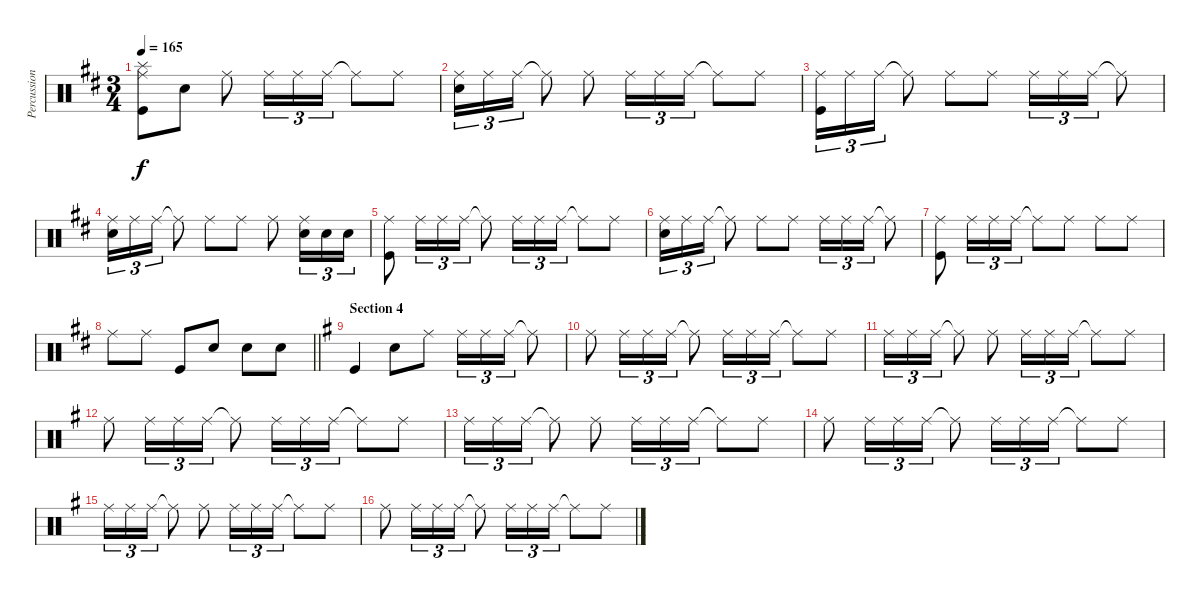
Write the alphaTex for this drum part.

\track ("Percussion" "Percussion") {instrument percussion}
\staff {score}
\articulation defaults
\ts (3 4)
\tempo 165
\clef neutral
\ks d
("Splash (hit)" "Ride (middle)" "Kick (hit)").8{dy f} "Snare (hit)".8 "Ride (middle)".8 "Ride (middle)".16{tu (3 2)} "Ride (middle)".16{tu (3 2)} "Ride (middle)".16{tu (3 2)} "Ride (middle)"{t}.8 "Ride (middle)".8 |
("Ride (middle)" "Snare (hit) 2").16{tu (3 2)} "Ride (middle)".16{tu (3 2)} "Ride (middle)".16{tu (3 2)} "Ride (middle)"{t}.8 "Ride (middle)".8 "Ride (middle)".16{tu (3 2)} "Ride (middle)".16{tu (3 2)} "Ride (middle)".16{tu (3 2)} "Ride (middle)"{t}.8 "Ride (middle)".8 |
("Ride (middle)" "Kick (hit)").16{tu (3 2)} "Ride (middle)".16{tu (3 2)} "Ride (middle)".16{tu (3 2)} "Ride (middle)"{t}.8 "Ride (middle)".8 "Ride (middle)".8 "Ride (middle)".16{tu (3 2)} "Ride (middle)".16{tu (3 2)} "Ride (middle)".16{tu (3 2)} "Ride (middle)"{t}.8 |
("Ride (middle)" "Snare (hit) 2").16{tu (3 2)} "Ride (middle)".16{tu (3 2)} "Ride (middle)".16{tu (3 2)} "Ride (middle)"{t}.8 "Ride (middle)".8 "Ride (middle)".8 "Ride (middle)".8 ("Ride (middle)" "Snare (hit) 2").16{tu (3 2)} "Snare (hit) 2".16{tu (3 2)} "Snare (hit) 2".16{tu (3 2)} |
("Ride (middle)" "Kick (hit)").8 "Ride (middle)".16{tu (3 2)} "Ride (middle)".16{tu (3 2)} "Ride (middle)".16{tu (3 2)} "Ride (middle)"{t}.8 "Ride (middle)".16{tu (3 2)} "Ride (middle)".16{tu (3 2)} "Ride (middle)".16{tu (3 2)} "Ride (middle)"{t}.8 "Ride (middle)".8 |
("Ride (middle)" "Snare (hit) 2").16{tu (3 2)} "Ride (middle)".16{tu (3 2)} "Ride (middle)".16{tu (3 2)} "Ride (middle)"{t}.8 "Ride (middle)".8 "Ride (middle)".8 "Ride (middle)".16{tu (3 2)} "Ride (middle)".16{tu (3 2)} "Ride (middle)".16{tu (3 2)} "Ride (middle)"{t}.8 |
("Ride (middle)" "Kick (hit)").8 "Ride (middle)".16{tu (3 2)} "Ride (middle)".16{tu (3 2)} "Ride (middle)".16{tu (3 2)} "Ride (middle)"{t}.8 "Ride (middle)".8 "Ride (middle)".8 "Ride (middle)".8 |
\barLineRight lightlight "Ride (middle)".8 "Ride (middle)".8 "Kick (hit)".8 "Snare (hit) 2".8 "Snare (hit) 2".8 "Snare (hit) 2".8
|
\section ("" "Section 4")
\ks g "Kick (hit)".4 "Snare (hit) 2".8 "Ride (middle)".8 "Ride (middle)".16{tu (3 2)} "Ride (middle)".16{tu (3 2)} "Ride (middle)".16{tu (3 2)} "Ride (middle)"{t}.8
|
"Ride (middle)".8 "Ride (middle)".16{tu (3 2)} "Ride (middle)".16{tu (3 2)} "Ride (middle)".16{tu (3 2)} "Ride (middle)"{t}.8 "Ride (middle)".16{tu (3 2)} "Ride (middle)".16{tu (3 2)} "Ride (middle)".16{tu (3 2)} "Ride (middle)"{t}.8 "Ride (middle)".8 |
"Ride (middle)".16{tu (3 2)} "Ride (middle)".16{tu (3 2)} "Ride (middle)".16{tu (3 2)} "Ride (middle)"{t}.8 "Ride (middle)".8 "Ride (middle)".16{tu (3 2)} "Ride (middle)".16{tu (3 2)} "Ride (middle)".16{tu (3 2)} "Ride (middle)"{t}.8 "Ride (middle)".8 |
"Ride (middle)".8 "Ride (middle)".16{tu (3 2)} "Ride (middle)".16{tu (3 2)} "Ride (middle)".16{tu (3 2)} "Ride (middle)"{t}.8 "Ride (middle)".16{tu (3 2)} "Ride (middle)".16{tu (3 2)} "Ride (middle)".16{tu (3 2)} "Ride (middle)"{t}.8 "Ride (middle)".8 |
"Ride (middle)".16{tu (3 2)} "Ride (middle)".16{tu (3 2)} "Ride (middle)".16{tu (3 2)} "Ride (middle)"{t}.8 "Ride (middle)".8 "Ride (middle)".16{tu (3 2)} "Ride (middle)".16{tu (3 2)} "Ride (middle)".16{tu (3 2)} "Ride (middle)"{t}.8 "Ride (middle)".8 |
"Ride (middle)".8 "Ride (middle)".16{tu (3 2)} "Ride (middle)".16{tu (3 2)} "Ride (middle)".16{tu (3 2)} "Ride (middle)"{t}.8 "Ride (middle)".16{tu (3 2)} "Ride (middle)".16{tu (3 2)} "Ride (middle)".16{tu (3 2)} "Ride (middle)"{t}.8 "Ride (middle)".8 |
"Ride (middle)".16{tu (3 2)} "Ride (middle)".16{tu (3 2)} "Ride (middle)".16{tu (3 2)} "Ride (middle)"{t}.8 "Ride (middle)".8 "Ride (middle)".16{tu (3 2)} "Ride (middle)".16{tu (3 2)} "Ride (middle)".16{tu (3 2)} "Ride (middle)"{t}.8 "Ride (middle)".8 |
"Ride (middle)".8 "Ride (middle)".16{tu (3 2)} "Ride (middle)".16{tu (3 2)} "Ride (middle)".16{tu (3 2)} "Ride (middle)"{t}.8 "Ride (middle)".16{tu (3 2)} "Ride (middle)".16{tu (3 2)} "Ride (middle)".16{tu (3 2)} "Ride (middle)"{t}.8 "Ride (middle)".8
